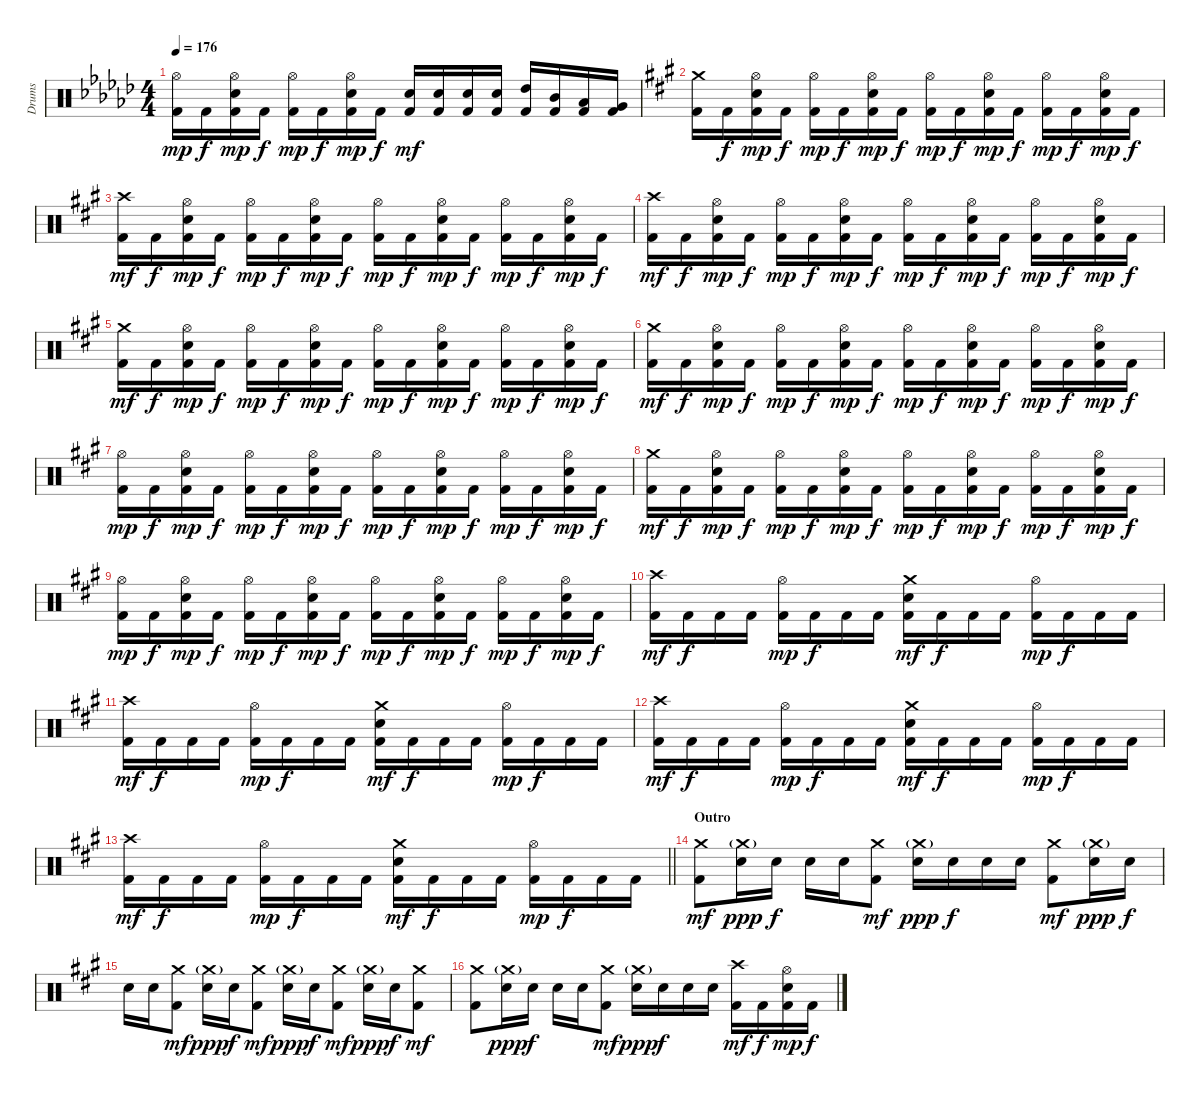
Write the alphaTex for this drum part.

\track ("Drums" "Drums") {instrument percussion}
\staff {score}
\articulation defaults
\ts (4 4)
\tempo 176
\clef neutral
\ks ebminor
("Hi-Hat (open)" "Kick (hit) 2").16{dy mp} "Kick (hit) 2".16{dy f} ("Hi-Hat (open)" "Electric Snare (hit)" "Kick (hit) 2").16{dy mp} "Kick (hit) 2".16{dy f} ("Hi-Hat (open)" "Kick (hit) 2").16{dy mp} "Kick (hit) 2".16{dy f} ("Hi-Hat (open)" "Electric Snare (hit)" "Kick (hit) 2").16{dy mp} "Kick (hit) 2".16{dy f} ("Electric Snare (hit)" "Kick (hit) 2").16{dy mf} ("Electric Snare (hit)" "Kick (hit) 2").16 ("Electric Snare (hit)" "Kick (hit) 2").16 ("Electric Snare (hit)" "Kick (hit) 2").16 ("High Tom (hit)" "Kick (hit) 2").16 ("Mid Tom (hit)" "Kick (hit) 2").16 ("Low Tom (hit)" "Kick (hit) 2").16 ("Very Low Tom (hit)" "Kick (hit) 2").16 |
\ks f#minor
("Crash medium (hit)" "Kick (hit) 2").16 "Kick (hit) 2".16{dy f} ("Hi-Hat (open)" "Electric Snare (hit)" "Kick (hit) 2").16{dy mp} "Kick (hit) 2".16{dy f} ("Hi-Hat (open)" "Kick (hit) 2").16{dy mp} "Kick (hit) 2".16{dy f} ("Hi-Hat (open)" "Electric Snare (hit)" "Kick (hit) 2").16{dy mp} "Kick (hit) 2".16{dy f} ("Hi-Hat (open)" "Kick (hit) 2").16{dy mp} "Kick (hit) 2".16{dy f} ("Hi-Hat (open)" "Electric Snare (hit)" "Kick (hit) 2").16{dy mp} "Kick (hit) 2".16{dy f} ("Hi-Hat (open)" "Kick (hit) 2").16{dy mp} "Kick (hit) 2".16{dy f} ("Hi-Hat (open)" "Electric Snare (hit)" "Kick (hit) 2").16{dy mp} "Kick (hit) 2".16{dy f} |
("Crash high (hit)" "Kick (hit) 2").16{dy mf} "Kick (hit) 2".16{dy f} ("Hi-Hat (open)" "Electric Snare (hit)" "Kick (hit) 2").16{dy mp} "Kick (hit) 2".16{dy f} ("Hi-Hat (open)" "Kick (hit) 2").16{dy mp} "Kick (hit) 2".16{dy f} ("Hi-Hat (open)" "Electric Snare (hit)" "Kick (hit) 2").16{dy mp} "Kick (hit) 2".16{dy f} ("Hi-Hat (open)" "Kick (hit) 2").16{dy mp} "Kick (hit) 2".16{dy f} ("Hi-Hat (open)" "Electric Snare (hit)" "Kick (hit) 2").16{dy mp} "Kick (hit) 2".16{dy f} ("Hi-Hat (open)" "Kick (hit) 2").16{dy mp} "Kick (hit) 2".16{dy f} ("Hi-Hat (open)" "Electric Snare (hit)" "Kick (hit) 2").16{dy mp} "Kick (hit) 2".16{dy f} |
("Crash high (hit)" "Kick (hit) 2").16{dy mf} "Kick (hit) 2".16{dy f} ("Hi-Hat (open)" "Electric Snare (hit)" "Kick (hit) 2").16{dy mp} "Kick (hit) 2".16{dy f} ("Hi-Hat (open)" "Kick (hit) 2").16{dy mp} "Kick (hit) 2".16{dy f} ("Hi-Hat (open)" "Electric Snare (hit)" "Kick (hit) 2").16{dy mp} "Kick (hit) 2".16{dy f} ("Hi-Hat (open)" "Kick (hit) 2").16{dy mp} "Kick (hit) 2".16{dy f} ("Hi-Hat (open)" "Electric Snare (hit)" "Kick (hit) 2").16{dy mp} "Kick (hit) 2".16{dy f} ("Hi-Hat (open)" "Kick (hit) 2").16{dy mp} "Kick (hit) 2".16{dy f} ("Hi-Hat (open)" "Electric Snare (hit)" "Kick (hit) 2").16{dy mp} "Kick (hit) 2".16{dy f} |
("Crash medium (hit)" "Kick (hit) 2").16{dy mf} "Kick (hit) 2".16{dy f} ("Hi-Hat (open)" "Electric Snare (hit)" "Kick (hit) 2").16{dy mp} "Kick (hit) 2".16{dy f} ("Hi-Hat (open)" "Kick (hit) 2").16{dy mp} "Kick (hit) 2".16{dy f} ("Hi-Hat (open)" "Electric Snare (hit)" "Kick (hit) 2").16{dy mp} "Kick (hit) 2".16{dy f} ("Hi-Hat (open)" "Kick (hit) 2").16{dy mp} "Kick (hit) 2".16{dy f} ("Hi-Hat (open)" "Electric Snare (hit)" "Kick (hit) 2").16{dy mp} "Kick (hit) 2".16{dy f} ("Hi-Hat (open)" "Kick (hit) 2").16{dy mp} "Kick (hit) 2".16{dy f} ("Hi-Hat (open)" "Electric Snare (hit)" "Kick (hit) 2").16{dy mp} "Kick (hit) 2".16{dy f} |
("Crash medium (hit)" "Kick (hit) 2").16{dy mf} "Kick (hit) 2".16{dy f} ("Hi-Hat (open)" "Electric Snare (hit)" "Kick (hit) 2").16{dy mp} "Kick (hit) 2".16{dy f} ("Hi-Hat (open)" "Kick (hit) 2").16{dy mp} "Kick (hit) 2".16{dy f} ("Hi-Hat (open)" "Electric Snare (hit)" "Kick (hit) 2").16{dy mp} "Kick (hit) 2".16{dy f} ("Hi-Hat (open)" "Kick (hit) 2").16{dy mp} "Kick (hit) 2".16{dy f} ("Hi-Hat (open)" "Electric Snare (hit)" "Kick (hit) 2").16{dy mp} "Kick (hit) 2".16{dy f} ("Hi-Hat (open)" "Kick (hit) 2").16{dy mp} "Kick (hit) 2".16{dy f} ("Hi-Hat (open)" "Electric Snare (hit)" "Kick (hit) 2").16{dy mp} "Kick (hit) 2".16{dy f} |
("Hi-Hat (open)" "Kick (hit) 2").16{dy mp} "Kick (hit) 2".16{dy f} ("Hi-Hat (open)" "Electric Snare (hit)" "Kick (hit) 2").16{dy mp} "Kick (hit) 2".16{dy f} ("Hi-Hat (open)" "Kick (hit) 2").16{dy mp} "Kick (hit) 2".16{dy f} ("Hi-Hat (open)" "Electric Snare (hit)" "Kick (hit) 2").16{dy mp} "Kick (hit) 2".16{dy f} ("Hi-Hat (open)" "Kick (hit) 2").16{dy mp} "Kick (hit) 2".16{dy f} ("Hi-Hat (open)" "Electric Snare (hit)" "Kick (hit) 2").16{dy mp} "Kick (hit) 2".16{dy f} ("Hi-Hat (open)" "Kick (hit) 2").16{dy mp} "Kick (hit) 2".16{dy f} ("Hi-Hat (open)" "Electric Snare (hit)" "Kick (hit) 2").16{dy mp} "Kick (hit) 2".16{dy f} |
("Crash medium (hit)" "Kick (hit) 2").16{dy mf} "Kick (hit) 2".16{dy f} ("Hi-Hat (open)" "Electric Snare (hit)" "Kick (hit) 2").16{dy mp} "Kick (hit) 2".16{dy f} ("Hi-Hat (open)" "Kick (hit) 2").16{dy mp} "Kick (hit) 2".16{dy f} ("Hi-Hat (open)" "Electric Snare (hit)" "Kick (hit) 2").16{dy mp} "Kick (hit) 2".16{dy f} ("Hi-Hat (open)" "Kick (hit) 2").16{dy mp} "Kick (hit) 2".16{dy f} ("Hi-Hat (open)" "Electric Snare (hit)" "Kick (hit) 2").16{dy mp} "Kick (hit) 2".16{dy f} ("Hi-Hat (open)" "Kick (hit) 2").16{dy mp} "Kick (hit) 2".16{dy f} ("Hi-Hat (open)" "Electric Snare (hit)" "Kick (hit) 2").16{dy mp} "Kick (hit) 2".16{dy f} |
("Hi-Hat (open)" "Kick (hit) 2").16{dy mp} "Kick (hit) 2".16{dy f} ("Hi-Hat (open)" "Electric Snare (hit)" "Kick (hit) 2").16{dy mp} "Kick (hit) 2".16{dy f} ("Hi-Hat (open)" "Kick (hit) 2").16{dy mp} "Kick (hit) 2".16{dy f} ("Hi-Hat (open)" "Electric Snare (hit)" "Kick (hit) 2").16{dy mp} "Kick (hit) 2".16{dy f} ("Hi-Hat (open)" "Kick (hit) 2").16{dy mp} "Kick (hit) 2".16{dy f} ("Hi-Hat (open)" "Electric Snare (hit)" "Kick (hit) 2").16{dy mp} "Kick (hit) 2".16{dy f} ("Hi-Hat (open)" "Kick (hit) 2").16{dy mp} "Kick (hit) 2".16{dy f} ("Hi-Hat (open)" "Electric Snare (hit)" "Kick (hit) 2").16{dy mp} "Kick (hit) 2".16{dy f} |
("Crash high (hit)" "Kick (hit) 2").16{dy mf} "Kick (hit) 2".16{dy f} "Kick (hit) 2".16 "Kick (hit) 2".16 ("Hi-Hat (open)" "Kick (hit) 2").16{dy mp} "Kick (hit) 2".16{dy f} "Kick (hit) 2".16 "Kick (hit) 2".16 ("Crash medium (hit)" "Electric Snare (hit)" "Kick (hit) 2").16{dy mf} "Kick (hit) 2".16{dy f} "Kick (hit) 2".16 "Kick (hit) 2".16 ("Hi-Hat (open)" "Kick (hit) 2").16{dy mp} "Kick (hit) 2".16{dy f} "Kick (hit) 2".16 "Kick (hit) 2".16 |
("Crash high (hit)" "Kick (hit) 2").16{dy mf} "Kick (hit) 2".16{dy f} "Kick (hit) 2".16 "Kick (hit) 2".16 ("Hi-Hat (open)" "Kick (hit) 2").16{dy mp} "Kick (hit) 2".16{dy f} "Kick (hit) 2".16 "Kick (hit) 2".16 ("Crash medium (hit)" "Electric Snare (hit)" "Kick (hit) 2").16{dy mf} "Kick (hit) 2".16{dy f} "Kick (hit) 2".16 "Kick (hit) 2".16 ("Hi-Hat (open)" "Kick (hit) 2").16{dy mp} "Kick (hit) 2".16{dy f} "Kick (hit) 2".16 "Kick (hit) 2".16 |
("Crash high (hit)" "Kick (hit) 2").16{dy mf} "Kick (hit) 2".16{dy f} "Kick (hit) 2".16 "Kick (hit) 2".16 ("Hi-Hat (open)" "Kick (hit) 2").16{dy mp} "Kick (hit) 2".16{dy f} "Kick (hit) 2".16 "Kick (hit) 2".16 ("Crash medium (hit)" "Electric Snare (hit)" "Kick (hit) 2").16{dy mf} "Kick (hit) 2".16{dy f} "Kick (hit) 2".16 "Kick (hit) 2".16 ("Hi-Hat (open)" "Kick (hit) 2").16{dy mp} "Kick (hit) 2".16{dy f} "Kick (hit) 2".16 "Kick (hit) 2".16 |
\barLineRight lightlight
("Crash high (hit)" "Kick (hit) 2").16{dy mf} "Kick (hit) 2".16{dy f} "Kick (hit) 2".16 "Kick (hit) 2".16 ("Hi-Hat (open)" "Kick (hit) 2").16{dy mp} "Kick (hit) 2".16{dy f} "Kick (hit) 2".16 "Kick (hit) 2".16 ("Crash medium (hit)" "Electric Snare (hit)" "Kick (hit) 2").16{dy mf} "Kick (hit) 2".16{dy f} "Kick (hit) 2".16 "Kick (hit) 2".16 ("Hi-Hat (open)" "Kick (hit) 2").16{dy mp} "Kick (hit) 2".16{dy f} "Kick (hit) 2".16 "Kick (hit) 2".16 |
\section ("" "Outro")
("Crash medium (hit)" "Kick (hit) 2").8{dy mf} ("Crash medium (hit)"{g} "Electric Snare (hit)").16{dy ppp} "Electric Snare (hit)".16{dy f} "Electric Snare (hit)".16 "Electric Snare (hit)".16 ("Crash medium (hit)" "Kick (hit) 2").8{dy mf} ("Crash medium (hit)"{g} "Electric Snare (hit)").16{dy ppp} "Electric Snare (hit)".16{dy f} "Electric Snare (hit)".16 "Electric Snare (hit)".16 ("Crash medium (hit)" "Kick (hit) 2").8{dy mf} ("Crash medium (hit)"{g} "Electric Snare (hit)").16{dy ppp} "Electric Snare (hit)".16{dy f} |
"Electric Snare (hit)".16 "Electric Snare (hit)".16 ("Crash medium (hit)" "Kick (hit) 2").8{dy mf} ("Crash medium (hit)"{g} "Electric Snare (hit)").16{dy ppp} "Electric Snare (hit)".16{dy f} ("Crash medium (hit)" "Kick (hit) 2").8{dy mf} ("Crash medium (hit)"{g} "Electric Snare (hit)").16{dy ppp} "Electric Snare (hit)".16{dy f} ("Crash medium (hit)" "Kick (hit) 2").8{dy mf} ("Crash medium (hit)"{g} "Electric Snare (hit)").16{dy ppp} "Electric Snare (hit)".16{dy f} ("Crash medium (hit)" "Kick (hit) 2").8{dy mf} |
("Crash medium (hit)" "Kick (hit) 2").8 ("Crash medium (hit)"{g} "Electric Snare (hit)").16{dy ppp} "Electric Snare (hit)".16{dy f} "Electric Snare (hit)".16 "Electric Snare (hit)".16 ("Crash medium (hit)" "Kick (hit) 2").8{dy mf} ("Crash medium (hit)"{g} "Electric Snare (hit)").16{dy ppp} "Electric Snare (hit)".16{dy f} "Electric Snare (hit)".16 "Electric Snare (hit)".16 ("Crash high (hit)" "Kick (hit) 2").16{dy mf} "Kick (hit) 2".16{dy f} ("Hi-Hat (open)" "Electric Snare (hit)" "Kick (hit) 2").16{dy mp} "Kick (hit) 2".16{dy f}
